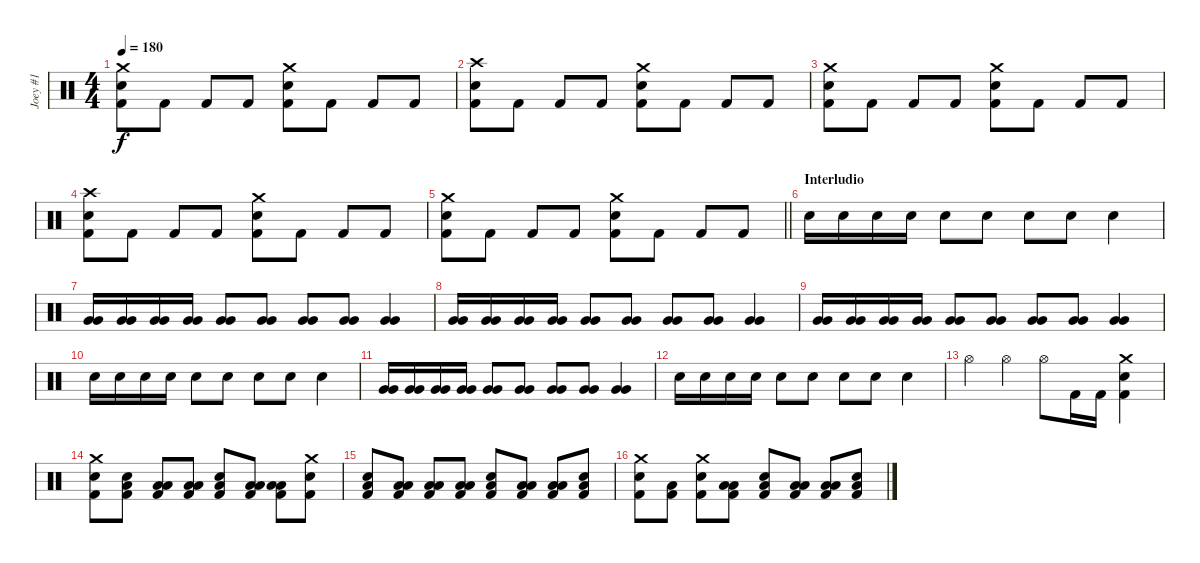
\track ("Joey #1" "Joey #1") {instrument percussion}
\staff {score}
\articulation defaults
\ts (4 4)
\tempo 180
\clef neutral
\ks c
("Crash medium (hit)" "Electric Snare (hit)" "Kick (hit) 2").8{dy f} "Kick (hit) 2".8 "Kick (hit) 2".8 "Kick (hit) 2".8 ("Crash medium (hit)" "Electric Snare (hit)" "Kick (hit) 2").8 "Kick (hit) 2".8 "Kick (hit) 2".8 "Kick (hit) 2".8 |
("Crash high (hit)" "Electric Snare (hit)" "Kick (hit) 2").8 "Kick (hit) 2".8 "Kick (hit) 2".8 "Kick (hit) 2".8 ("Crash medium (hit)" "Electric Snare (hit)" "Kick (hit) 2").8 "Kick (hit) 2".8 "Kick (hit) 2".8 "Kick (hit) 2".8 |
("Crash medium (hit)" "Electric Snare (hit)" "Kick (hit) 2").8 "Kick (hit) 2".8 "Kick (hit) 2".8 "Kick (hit) 2".8 ("Crash medium (hit)" "Electric Snare (hit)" "Kick (hit) 2").8 "Kick (hit) 2".8 "Kick (hit) 2".8 "Kick (hit) 2".8 |
("Crash high (hit)" "Electric Snare (hit)" "Kick (hit) 2").8 "Kick (hit) 2".8 "Kick (hit) 2".8 "Kick (hit) 2".8 ("Crash medium (hit)" "Electric Snare (hit)" "Kick (hit) 2").8 "Kick (hit) 2".8 "Kick (hit) 2".8 "Kick (hit) 2".8 |
\barLineRight lightlight
("Crash medium (hit)" "Electric Snare (hit)" "Kick (hit) 2").8 "Kick (hit) 2".8 "Kick (hit) 2".8 "Kick (hit) 2".8 ("Crash medium (hit)" "Electric Snare (hit)" "Kick (hit) 2").8 "Kick (hit) 2".8 "Kick (hit) 2".8 "Kick (hit) 2".8 |
\section ("" "Interludio")
"Electric Snare (hit)".16 "Electric Snare (hit)".16 "Electric Snare (hit)".16 "Electric Snare (hit)".16 "Electric Snare (hit)".8 "Electric Snare (hit)".8 "Electric Snare (hit)".8 "Electric Snare (hit)".8 "Electric Snare (hit)".4 |
("Very Low Tom (hit)" "Very Low Tom (hit)").16 ("Very Low Tom (hit)" "Very Low Tom (hit)").16 ("Very Low Tom (hit)" "Very Low Tom (hit)").16 ("Very Low Tom (hit)" "Very Low Tom (hit)").16 ("Very Low Tom (hit)" "Very Low Tom (hit)").8 ("Very Low Tom (hit)" "Very Low Tom (hit)").8 ("Very Low Tom (hit)" "Very Low Tom (hit)").8 ("Very Low Tom (hit)" "Very Low Tom (hit)").8 ("Very Low Tom (hit)" "Very Low Tom (hit)").4 |
("Very Low Tom (hit)" "Very Low Tom (hit)").16 ("Very Low Tom (hit)" "Very Low Tom (hit)").16 ("Very Low Tom (hit)" "Very Low Tom (hit)").16 ("Very Low Tom (hit)" "Very Low Tom (hit)").16 ("Very Low Tom (hit)" "Very Low Tom (hit)").8 ("Very Low Tom (hit)" "Very Low Tom (hit)").8 ("Very Low Tom (hit)" "Very Low Tom (hit)").8 ("Very Low Tom (hit)" "Very Low Tom (hit)").8 ("Very Low Tom (hit)" "Very Low Tom (hit)").4 |
("Very Low Tom (hit)" "Very Low Tom (hit)").16 ("Very Low Tom (hit)" "Very Low Tom (hit)").16 ("Very Low Tom (hit)" "Very Low Tom (hit)").16 ("Very Low Tom (hit)" "Very Low Tom (hit)").16 ("Very Low Tom (hit)" "Very Low Tom (hit)").8 ("Very Low Tom (hit)" "Very Low Tom (hit)").8 ("Very Low Tom (hit)" "Very Low Tom (hit)").8 ("Very Low Tom (hit)" "Very Low Tom (hit)").8 ("Very Low Tom (hit)" "Very Low Tom (hit)").4 |
"Electric Snare (hit)".16 "Electric Snare (hit)".16 "Electric Snare (hit)".16 "Electric Snare (hit)".16 "Electric Snare (hit)".8 "Electric Snare (hit)".8 "Electric Snare (hit)".8 "Electric Snare (hit)".8 "Electric Snare (hit)".4 |
("Very Low Tom (hit)" "Very Low Tom (hit)").16 ("Very Low Tom (hit)" "Very Low Tom (hit)").16 ("Very Low Tom (hit)" "Very Low Tom (hit)").16 ("Very Low Tom (hit)" "Very Low Tom (hit)").16 ("Very Low Tom (hit)" "Very Low Tom (hit)").8 ("Very Low Tom (hit)" "Very Low Tom (hit)").8 ("Very Low Tom (hit)" "Very Low Tom (hit)").8 ("Very Low Tom (hit)" "Very Low Tom (hit)").8 ("Very Low Tom (hit)" "Very Low Tom (hit)").4 |
"Electric Snare (hit)".16 "Electric Snare (hit)".16 "Electric Snare (hit)".16 "Electric Snare (hit)".16 "Electric Snare (hit)".8 "Electric Snare (hit)".8 "Electric Snare (hit)".8 "Electric Snare (hit)".8 "Electric Snare (hit)".4 |
"Hi-Hat (open)".4 "Hi-Hat (open)".4 "Hi-Hat (open)".8 "Kick (hit) 2".16 "Kick (hit) 2".16 ("Crash medium (hit)" "Electric Snare (hit)" "Kick (hit) 2").4 |
("Crash medium (hit)" "Electric Snare (hit)" "Kick (hit) 2").8 ("Low Tom (hit)" "Electric Snare (hit)" "Kick (hit) 2").8 ("Low Tom (hit)" "Low Floor Tom (hit)" "Kick (hit) 2").8 ("Low Tom (hit)" "Low Floor Tom (hit)" "Kick (hit) 2").8 ("Low Tom (hit)" "Electric Snare (hit)" "Kick (hit) 2").8 ("Low Tom (hit)" "Low Floor Tom (hit)" "Kick (hit) 2").8 ("Low Tom (hit)" "Low Floor Tom (hit)" "Kick (hit) 2").8 ("Crash medium (hit)" "Electric Snare (hit)" "Kick (hit) 2").8 |
("Low Tom (hit)" "Electric Snare (hit)" "Kick (hit) 2").8 ("Low Tom (hit)" "Low Floor Tom (hit)" "Kick (hit) 2").8 ("Low Tom (hit)" "Low Floor Tom (hit)" "Kick (hit) 2").8 ("Low Tom (hit)" "Low Floor Tom (hit)" "Kick (hit) 2").8 ("Low Tom (hit)" "Electric Snare (hit)" "Kick (hit) 2").8 ("Low Tom (hit)" "Low Floor Tom (hit)" "Kick (hit) 2").8 ("Low Tom (hit)" "Low Floor Tom (hit)" "Kick (hit) 2").8 ("Low Tom (hit)" "Electric Snare (hit)" "Kick (hit) 2").8 |
("Crash medium (hit)" "Electric Snare (hit)" "Kick (hit) 2").8 ("Low Floor Tom (hit)" "Kick (hit) 2").8 ("Crash medium (hit)" "Electric Snare (hit)" "Kick (hit) 2").8 ("Low Tom (hit)" "Low Floor Tom (hit)" "Kick (hit) 2").8 ("Low Tom (hit)" "Electric Snare (hit)" "Kick (hit) 2").8 ("Low Tom (hit)" "Low Floor Tom (hit)" "Kick (hit) 2").8 ("Low Tom (hit)" "Low Floor Tom (hit)" "Kick (hit) 2").8 ("Low Tom (hit)" "Electric Snare (hit)" "Kick (hit) 2").8
